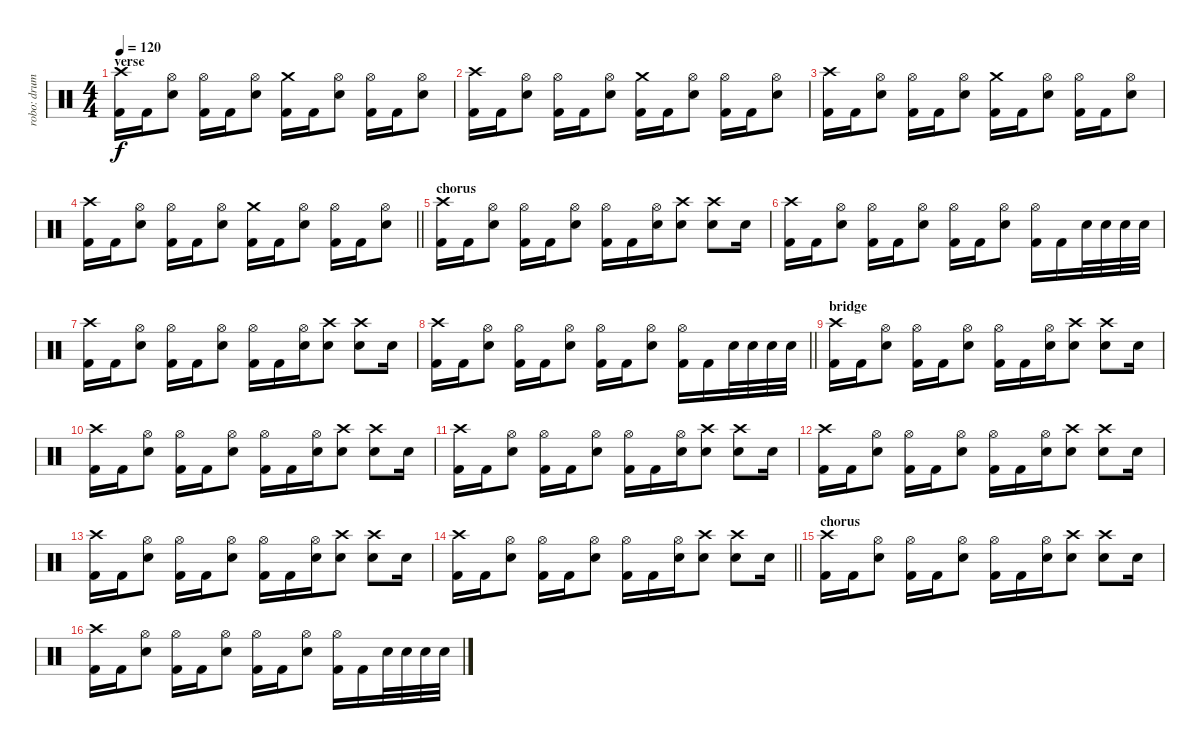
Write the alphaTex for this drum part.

\track ("robo: drums" "robo: drum") {instrument percussion}
\staff {score}
\articulation defaults
\ts (4 4)
\section ("" "verse")
\tempo 120
\clef neutral
\ks c
("Crash high (hit)" "Kick (hit) 2").16{dy f} "Kick (hit) 2".16 ("Hi-Hat (open)" "Snare (hit) 2").8 ("Hi-Hat (open)" "Kick (hit) 2").16 "Kick (hit) 2".16 ("Hi-Hat (open)" "Snare (hit) 2").8 ("Crash medium (hit)" "Kick (hit) 2").16 "Kick (hit) 2".16 ("Hi-Hat (open)" "Snare (hit) 2").8 ("Hi-Hat (open)" "Kick (hit) 2").16 "Kick (hit) 2".16 ("Hi-Hat (open)" "Snare (hit) 2").8 |
("Crash high (hit)" "Kick (hit) 2").16 "Kick (hit) 2".16 ("Hi-Hat (open)" "Snare (hit) 2").8 ("Hi-Hat (open)" "Kick (hit) 2").16 "Kick (hit) 2".16 ("Hi-Hat (open)" "Snare (hit) 2").8 ("Crash medium (hit)" "Kick (hit) 2").16 "Kick (hit) 2".16 ("Hi-Hat (open)" "Snare (hit) 2").8 ("Hi-Hat (open)" "Kick (hit) 2").16 "Kick (hit) 2".16 ("Hi-Hat (open)" "Snare (hit) 2").8 |
("Crash high (hit)" "Kick (hit) 2").16 "Kick (hit) 2".16 ("Hi-Hat (open)" "Snare (hit) 2").8 ("Hi-Hat (open)" "Kick (hit) 2").16 "Kick (hit) 2".16 ("Hi-Hat (open)" "Snare (hit) 2").8 ("Crash medium (hit)" "Kick (hit) 2").16 "Kick (hit) 2".16 ("Hi-Hat (open)" "Snare (hit) 2").8 ("Hi-Hat (open)" "Kick (hit) 2").16 "Kick (hit) 2".16 ("Hi-Hat (open)" "Snare (hit) 2").8 |
\barLineRight lightlight
("Crash high (hit)" "Kick (hit) 2").16 "Kick (hit) 2".16 ("Hi-Hat (open)" "Snare (hit) 2").8 ("Hi-Hat (open)" "Kick (hit) 2").16 "Kick (hit) 2".16 ("Hi-Hat (open)" "Snare (hit) 2").8 ("Crash medium (hit)" "Kick (hit) 2").16 "Kick (hit) 2".16 ("Hi-Hat (open)" "Snare (hit) 2").8 ("Hi-Hat (open)" "Kick (hit) 2").16 "Kick (hit) 2".16 ("Hi-Hat (open)" "Snare (hit) 2").8 |
\section ("" "chorus")
("Crash high (hit)" "Kick (hit) 2").16 "Kick (hit) 2".16 ("Hi-Hat (open)" "Snare (hit) 2").8 ("Hi-Hat (open)" "Kick (hit) 2").16 "Kick (hit) 2".16 ("Hi-Hat (open)" "Snare (hit) 2").8 ("Hi-Hat (open)" "Kick (hit) 2").16 "Kick (hit) 2".16 ("Hi-Hat (open)" "Snare (hit) 2").16 ("Crash high (hit)" "Snare (hit) 2").8 ("Crash high (hit)" "Snare (hit) 2").8 "Snare (hit) 2".16 |
("Crash high (hit)" "Kick (hit) 2").16 "Kick (hit) 2".16 ("Hi-Hat (open)" "Snare (hit) 2").8 ("Hi-Hat (open)" "Kick (hit) 2").16 "Kick (hit) 2".16 ("Hi-Hat (open)" "Snare (hit) 2").8 ("Hi-Hat (open)" "Kick (hit) 2").16 "Kick (hit) 2".16 ("Hi-Hat (open)" "Snare (hit) 2").8 ("Hi-Hat (open)" "Kick (hit) 2").16 "Kick (hit) 2".16 "Snare (hit) 2".32 "Snare (hit) 2".32 "Snare (hit) 2".32 "Snare (hit) 2".32 |
("Crash high (hit)" "Kick (hit) 2").16 "Kick (hit) 2".16 ("Hi-Hat (open)" "Snare (hit) 2").8 ("Hi-Hat (open)" "Kick (hit) 2").16 "Kick (hit) 2".16 ("Hi-Hat (open)" "Snare (hit) 2").8 ("Hi-Hat (open)" "Kick (hit) 2").16 "Kick (hit) 2".16 ("Hi-Hat (open)" "Snare (hit) 2").16 ("Crash high (hit)" "Snare (hit) 2").8 ("Crash high (hit)" "Snare (hit) 2").8 "Snare (hit) 2".16 |
\barLineRight lightlight
("Crash high (hit)" "Kick (hit) 2").16 "Kick (hit) 2".16 ("Hi-Hat (open)" "Snare (hit) 2").8 ("Hi-Hat (open)" "Kick (hit) 2").16 "Kick (hit) 2".16 ("Hi-Hat (open)" "Snare (hit) 2").8 ("Hi-Hat (open)" "Kick (hit) 2").16 "Kick (hit) 2".16 ("Hi-Hat (open)" "Snare (hit) 2").8 ("Hi-Hat (open)" "Kick (hit) 2").16 "Kick (hit) 2".16 "Snare (hit) 2".32 "Snare (hit) 2".32 "Snare (hit) 2".32 "Snare (hit) 2".32 |
\section ("" "bridge")
("Crash high (hit)" "Kick (hit) 2").16 "Kick (hit) 2".16 ("Hi-Hat (open)" "Snare (hit) 2").8 ("Hi-Hat (open)" "Kick (hit) 2").16 "Kick (hit) 2".16 ("Hi-Hat (open)" "Snare (hit) 2").8 ("Hi-Hat (open)" "Kick (hit) 2").16 "Kick (hit) 2".16 ("Hi-Hat (open)" "Snare (hit) 2").16 ("Crash high (hit)" "Snare (hit) 2").8 ("Crash high (hit)" "Snare (hit) 2").8 "Snare (hit) 2".16 |
("Crash high (hit)" "Kick (hit) 2").16 "Kick (hit) 2".16 ("Hi-Hat (open)" "Snare (hit) 2").8 ("Hi-Hat (open)" "Kick (hit) 2").16 "Kick (hit) 2".16 ("Hi-Hat (open)" "Snare (hit) 2").8 ("Hi-Hat (open)" "Kick (hit) 2").16 "Kick (hit) 2".16 ("Hi-Hat (open)" "Snare (hit) 2").16 ("Crash high (hit)" "Snare (hit) 2").8 ("Crash high (hit)" "Snare (hit) 2").8 "Snare (hit) 2".16 |
("Crash high (hit)" "Kick (hit) 2").16 "Kick (hit) 2".16 ("Hi-Hat (open)" "Snare (hit) 2").8 ("Hi-Hat (open)" "Kick (hit) 2").16 "Kick (hit) 2".16 ("Hi-Hat (open)" "Snare (hit) 2").8 ("Hi-Hat (open)" "Kick (hit) 2").16 "Kick (hit) 2".16 ("Hi-Hat (open)" "Snare (hit) 2").16 ("Crash high (hit)" "Snare (hit) 2").8 ("Crash high (hit)" "Snare (hit) 2").8 "Snare (hit) 2".16 |
("Crash high (hit)" "Kick (hit) 2").16 "Kick (hit) 2".16 ("Hi-Hat (open)" "Snare (hit) 2").8 ("Hi-Hat (open)" "Kick (hit) 2").16 "Kick (hit) 2".16 ("Hi-Hat (open)" "Snare (hit) 2").8 ("Hi-Hat (open)" "Kick (hit) 2").16 "Kick (hit) 2".16 ("Hi-Hat (open)" "Snare (hit) 2").16 ("Crash high (hit)" "Snare (hit) 2").8 ("Crash high (hit)" "Snare (hit) 2").8 "Snare (hit) 2".16 |
("Crash high (hit)" "Kick (hit) 2").16 "Kick (hit) 2".16 ("Hi-Hat (open)" "Snare (hit) 2").8 ("Hi-Hat (open)" "Kick (hit) 2").16 "Kick (hit) 2".16 ("Hi-Hat (open)" "Snare (hit) 2").8 ("Hi-Hat (open)" "Kick (hit) 2").16 "Kick (hit) 2".16 ("Hi-Hat (open)" "Snare (hit) 2").16 ("Crash high (hit)" "Snare (hit) 2").8 ("Crash high (hit)" "Snare (hit) 2").8 "Snare (hit) 2".16 |
\barLineRight lightlight
("Crash high (hit)" "Kick (hit) 2").16 "Kick (hit) 2".16 ("Hi-Hat (open)" "Snare (hit) 2").8 ("Hi-Hat (open)" "Kick (hit) 2").16 "Kick (hit) 2".16 ("Hi-Hat (open)" "Snare (hit) 2").8 ("Hi-Hat (open)" "Kick (hit) 2").16 "Kick (hit) 2".16 ("Hi-Hat (open)" "Snare (hit) 2").16 ("Crash high (hit)" "Snare (hit) 2").8 ("Crash high (hit)" "Snare (hit) 2").8 "Snare (hit) 2".16 |
\section ("" "chorus")
("Crash high (hit)" "Kick (hit) 2").16 "Kick (hit) 2".16 ("Hi-Hat (open)" "Snare (hit) 2").8 ("Hi-Hat (open)" "Kick (hit) 2").16 "Kick (hit) 2".16 ("Hi-Hat (open)" "Snare (hit) 2").8 ("Hi-Hat (open)" "Kick (hit) 2").16 "Kick (hit) 2".16 ("Hi-Hat (open)" "Snare (hit) 2").16 ("Crash high (hit)" "Snare (hit) 2").8 ("Crash high (hit)" "Snare (hit) 2").8 "Snare (hit) 2".16 |
("Crash high (hit)" "Kick (hit) 2").16 "Kick (hit) 2".16 ("Hi-Hat (open)" "Snare (hit) 2").8 ("Hi-Hat (open)" "Kick (hit) 2").16 "Kick (hit) 2".16 ("Hi-Hat (open)" "Snare (hit) 2").8 ("Hi-Hat (open)" "Kick (hit) 2").16 "Kick (hit) 2".16 ("Hi-Hat (open)" "Snare (hit) 2").8 ("Hi-Hat (open)" "Kick (hit) 2").16 "Kick (hit) 2".16 "Snare (hit) 2".32 "Snare (hit) 2".32 "Snare (hit) 2".32 "Snare (hit) 2".32
